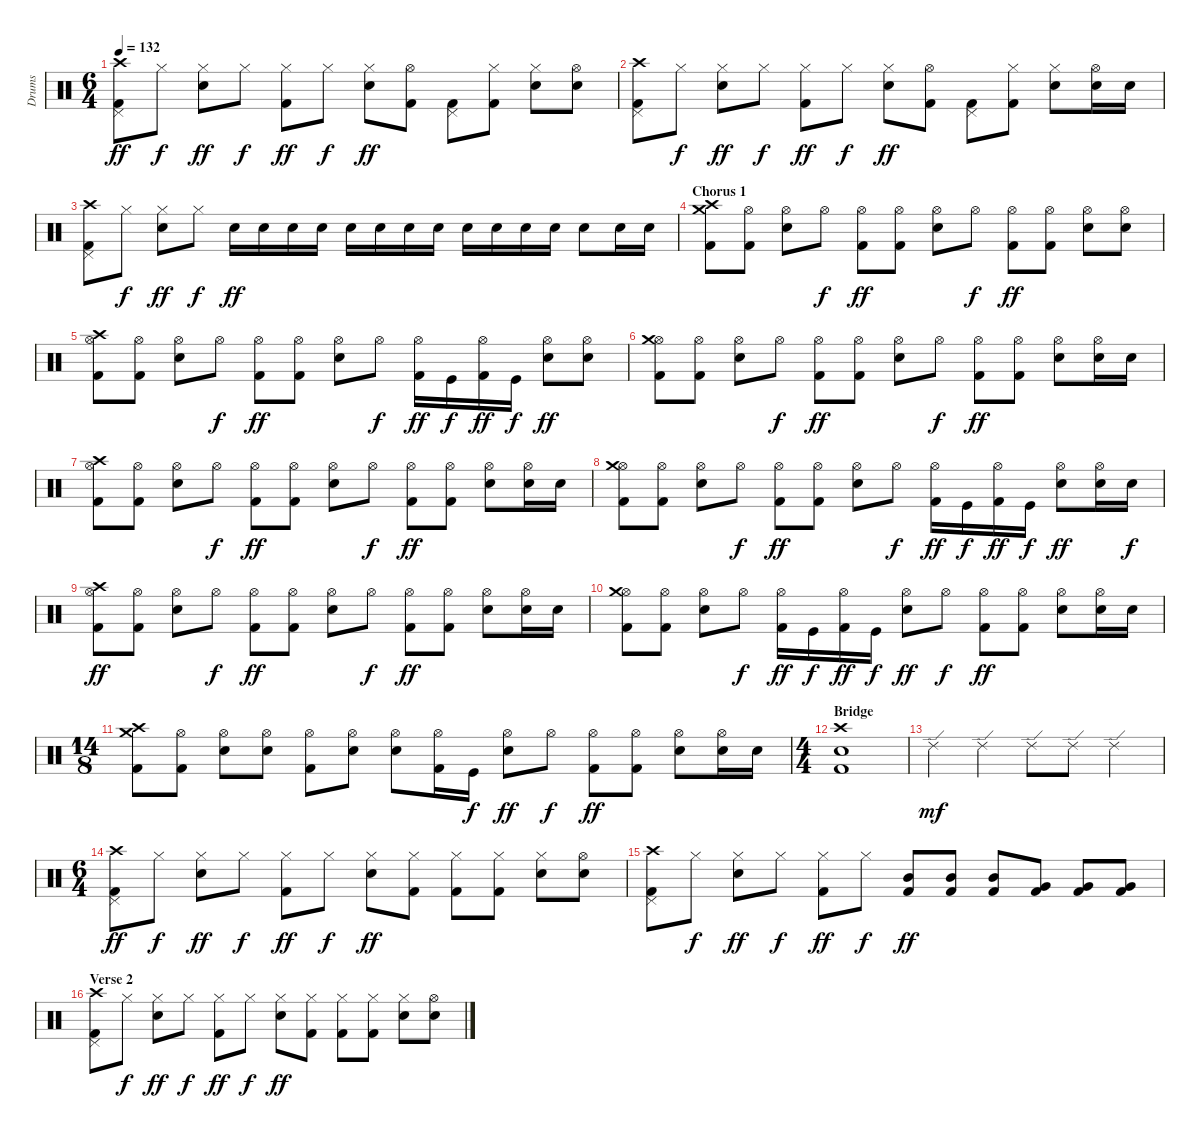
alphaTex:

\track ("Drums" "Drums") {instrument percussion}
\staff {score}
\articulation defaults
\ts (6 4)
\tempo 132
\clef neutral
\ks c
("Pedal Hi-Hat (hit)" "Crash high (hit)" "Kick (hit) 2").8{dy ff} "Hi-Hat (closed)".8{dy f} ("Hi-Hat (closed)" "Electric Snare (hit)").8{dy ff} "Hi-Hat (closed)".8{dy f} ("Hi-Hat (closed)" "Kick (hit) 2").8{dy ff} "Hi-Hat (closed)".8{dy f} ("Hi-Hat (closed)" "Electric Snare (hit)").8{dy ff} ("Hi-Hat (open)" "Kick (hit) 2").8 ("Pedal Hi-Hat (hit)" "Kick (hit) 2").8 ("Hi-Hat (closed)" "Kick (hit) 2").8 ("Hi-Hat (closed)" "Electric Snare (hit)").8 ("Hi-Hat (open)" "Electric Snare (hit)").8 |
("Pedal Hi-Hat (hit)" "Crash high (hit)" "Kick (hit) 2").8 "Hi-Hat (closed)".8{dy f} ("Hi-Hat (closed)" "Electric Snare (hit)").8{dy ff} "Hi-Hat (closed)".8{dy f} ("Hi-Hat (closed)" "Kick (hit) 2").8{dy ff} "Hi-Hat (closed)".8{dy f} ("Hi-Hat (closed)" "Electric Snare (hit)").8{dy ff} ("Hi-Hat (open)" "Kick (hit) 2").8 ("Pedal Hi-Hat (hit)" "Kick (hit) 2").8 ("Hi-Hat (closed)" "Kick (hit) 2").8 ("Hi-Hat (closed)" "Electric Snare (hit)").8 ("Hi-Hat (open)" "Electric Snare (hit)").16 "Electric Snare (hit)".16 |
("Pedal Hi-Hat (hit)" "Crash high (hit)" "Kick (hit) 2").8 "Hi-Hat (closed)".8{dy f} ("Hi-Hat (closed)" "Electric Snare (hit)").8{dy ff} "Hi-Hat (closed)".8{dy f} "Electric Snare (hit)".16{dy ff} "Electric Snare (hit)".16 "Electric Snare (hit)".16 "Electric Snare (hit)".16 "Electric Snare (hit)".16 "Electric Snare (hit)".16 "Electric Snare (hit)".16 "Electric Snare (hit)".16 "Electric Snare (hit)".16 "Electric Snare (hit)".16 "Electric Snare (hit)".16 "Electric Snare (hit)".16 "Electric Snare (hit)".8 "Electric Snare (hit)".16 "Electric Snare (hit)".16 |
\section ("" "Chorus 1")
("Crash high (hit)" "Crash medium (hit)" "Kick (hit) 2").8 ("Hi-Hat (open)" "Kick (hit) 2").8 ("Hi-Hat (open)" "Electric Snare (hit)").8 "Hi-Hat (open)".8{dy f} ("Hi-Hat (open)" "Kick (hit) 2").8{dy ff} ("Hi-Hat (open)" "Kick (hit) 2").8 ("Hi-Hat (open)" "Electric Snare (hit)").8 "Hi-Hat (open)".8{dy f} ("Hi-Hat (open)" "Kick (hit) 2").8{dy ff} ("Hi-Hat (open)" "Kick (hit) 2").8 ("Hi-Hat (open)" "Electric Snare (hit)").8 ("Hi-Hat (open)" "Electric Snare (hit)").8 |
("Hi-Hat (open)" "Crash high (hit)" "Kick (hit) 2").8 ("Hi-Hat (open)" "Kick (hit) 2").8 ("Hi-Hat (open)" "Electric Snare (hit)").8 "Hi-Hat (open)".8{dy f} ("Hi-Hat (open)" "Kick (hit) 2").8{dy ff} ("Hi-Hat (open)" "Kick (hit) 2").8 ("Hi-Hat (open)" "Electric Snare (hit)").8 "Hi-Hat (open)".8{dy f} ("Hi-Hat (open)" "Kick (hit) 2").16{dy ff} "Kick (hit)".16{dy f} ("Hi-Hat (open)" "Kick (hit) 2").16{dy ff} "Kick (hit)".16{dy f} ("Hi-Hat (open)" "Electric Snare (hit)").8{dy ff} ("Hi-Hat (open)" "Electric Snare (hit)").8 |
("Hi-Hat (open)" "Crash medium (hit)" "Kick (hit) 2").8 ("Hi-Hat (open)" "Kick (hit) 2").8 ("Hi-Hat (open)" "Electric Snare (hit)").8 "Hi-Hat (open)".8{dy f} ("Hi-Hat (open)" "Kick (hit) 2").8{dy ff} ("Hi-Hat (open)" "Kick (hit) 2").8 ("Hi-Hat (open)" "Electric Snare (hit)").8 "Hi-Hat (open)".8{dy f} ("Hi-Hat (open)" "Kick (hit) 2").8{dy ff} ("Hi-Hat (open)" "Kick (hit) 2").8 ("Hi-Hat (open)" "Electric Snare (hit)").8 ("Hi-Hat (open)" "Electric Snare (hit)").16 "Electric Snare (hit)".16 |
("Hi-Hat (open)" "Crash high (hit)" "Kick (hit) 2").8 ("Hi-Hat (open)" "Kick (hit) 2").8 ("Hi-Hat (open)" "Electric Snare (hit)").8 "Hi-Hat (open)".8{dy f} ("Hi-Hat (open)" "Kick (hit) 2").8{dy ff} ("Hi-Hat (open)" "Kick (hit) 2").8 ("Hi-Hat (open)" "Electric Snare (hit)").8 "Hi-Hat (open)".8{dy f} ("Hi-Hat (open)" "Kick (hit) 2").8{dy ff} ("Hi-Hat (open)" "Kick (hit) 2").8 ("Hi-Hat (open)" "Electric Snare (hit)").8 ("Hi-Hat (open)" "Electric Snare (hit)").16 "Electric Snare (hit)".16 |
("Hi-Hat (open)" "Crash medium (hit)" "Kick (hit) 2").8 ("Hi-Hat (open)" "Kick (hit) 2").8 ("Hi-Hat (open)" "Electric Snare (hit)").8 "Hi-Hat (open)".8{dy f} ("Hi-Hat (open)" "Kick (hit) 2").8{dy ff} ("Hi-Hat (open)" "Kick (hit) 2").8 ("Hi-Hat (open)" "Electric Snare (hit)").8 "Hi-Hat (open)".8{dy f} ("Hi-Hat (open)" "Kick (hit) 2").16{dy ff} "Kick (hit)".16{dy f} ("Hi-Hat (open)" "Kick (hit) 2").16{dy ff} "Kick (hit)".16{dy f} ("Hi-Hat (open)" "Electric Snare (hit)").8{dy ff} ("Hi-Hat (open)" "Electric Snare (hit)").16 "Electric Snare (hit)".16{dy f} |
("Hi-Hat (open)" "Crash high (hit)" "Kick (hit) 2").8{dy ff} ("Hi-Hat (open)" "Kick (hit) 2").8 ("Hi-Hat (open)" "Electric Snare (hit)").8 "Hi-Hat (open)".8{dy f} ("Hi-Hat (open)" "Kick (hit) 2").8{dy ff} ("Hi-Hat (open)" "Kick (hit) 2").8 ("Hi-Hat (open)" "Electric Snare (hit)").8 "Hi-Hat (open)".8{dy f} ("Hi-Hat (open)" "Kick (hit) 2").8{dy ff} ("Hi-Hat (open)" "Kick (hit) 2").8 ("Hi-Hat (open)" "Electric Snare (hit)").8 ("Hi-Hat (open)" "Electric Snare (hit)").16 "Electric Snare (hit)".16 |
("Hi-Hat (open)" "Crash medium (hit)" "Kick (hit) 2").8 ("Hi-Hat (open)" "Kick (hit) 2").8 ("Hi-Hat (open)" "Electric Snare (hit)").8 "Hi-Hat (open)".8{dy f} ("Hi-Hat (open)" "Kick (hit) 2").16{dy ff} "Kick (hit)".16{dy f} ("Hi-Hat (open)" "Kick (hit) 2").16{dy ff} "Kick (hit)".16{dy f} ("Hi-Hat (open)" "Electric Snare (hit)").8{dy ff} "Hi-Hat (open)".8{dy f} ("Hi-Hat (open)" "Kick (hit) 2").8{dy ff} ("Hi-Hat (open)" "Kick (hit) 2").8 ("Hi-Hat (open)" "Electric Snare (hit)").8 ("Hi-Hat (open)" "Electric Snare (hit)").16 "Electric Snare (hit)".16 |
\ts (14 8)
("Crash high (hit)" "Crash medium (hit)" "Kick (hit) 2").8 ("Hi-Hat (open)" "Kick (hit) 2").8 ("Hi-Hat (open)" "Electric Snare (hit)").8 ("Hi-Hat (open)" "Electric Snare (hit)").8 ("Hi-Hat (open)" "Kick (hit) 2").8 ("Hi-Hat (open)" "Electric Snare (hit)").8 ("Hi-Hat (open)" "Electric Snare (hit)").8 ("Hi-Hat (open)" "Kick (hit) 2").16 "Kick (hit)".16{dy f} ("Hi-Hat (open)" "Electric Snare (hit)").8{dy ff} "Hi-Hat (open)".8{dy f} ("Hi-Hat (open)" "Kick (hit) 2").8{dy ff} ("Hi-Hat (open)" "Kick (hit) 2").8 ("Hi-Hat (open)" "Electric Snare (hit)").8 ("Hi-Hat (open)" "Electric Snare (hit)").16 "Electric Snare (hit)".16 |
\ts (4 4)
\section ("" "Bridge")
("Crash high (hit)" "Electric Snare (hit)" "Kick (hit) 2").1 |
"Ride (edge) 2".4{dy mf} "Ride (edge) 2".4 "Ride (edge) 2".8 "Ride (edge) 2".8 "Ride (edge) 2".4 |
\ts (6 4)
("Pedal Hi-Hat (hit)" "Crash high (hit)" "Kick (hit) 2").8{dy ff} "Hi-Hat (closed)".8{dy f} ("Hi-Hat (closed)" "Electric Snare (hit)").8{dy ff} "Hi-Hat (closed)".8{dy f} ("Hi-Hat (closed)" "Kick (hit) 2").8{dy ff} "Hi-Hat (closed)".8{dy f} ("Hi-Hat (closed)" "Electric Snare (hit)").8{dy ff} ("Hi-Hat (closed)" "Kick (hit) 2").8 ("Hi-Hat (closed)" "Kick (hit) 2").8 ("Hi-Hat (closed)" "Kick (hit) 2").8 ("Hi-Hat (closed)" "Electric Snare (hit)").8 ("Hi-Hat (open)" "Electric Snare (hit)").8 |
("Pedal Hi-Hat (hit)" "Crash high (hit)" "Kick (hit) 2").8 "Hi-Hat (closed)".8{dy f} ("Hi-Hat (closed)" "Electric Snare (hit)").8{dy ff} "Hi-Hat (closed)".8{dy f} ("Hi-Hat (closed)" "Kick (hit) 2").8{dy ff} "Hi-Hat (closed)".8{dy f} ("Mid Tom (hit)" "Kick (hit) 2").8{dy ff} ("Mid Tom (hit)" "Kick (hit) 2").8 ("Mid Tom (hit)" "Kick (hit) 2").8 ("Very Low Tom (hit)" "Kick (hit) 2").8 ("Very Low Tom (hit)" "Kick (hit) 2").8 ("Very Low Tom (hit)" "Kick (hit) 2").8 |
\section ("" "Verse 2")
("Pedal Hi-Hat (hit)" "Crash high (hit)" "Kick (hit) 2").8 "Hi-Hat (closed)".8{dy f} ("Hi-Hat (closed)" "Electric Snare (hit)").8{dy ff} "Hi-Hat (closed)".8{dy f} ("Hi-Hat (closed)" "Kick (hit) 2").8{dy ff} "Hi-Hat (closed)".8{dy f} ("Hi-Hat (closed)" "Electric Snare (hit)").8{dy ff} ("Hi-Hat (closed)" "Kick (hit) 2").8 ("Hi-Hat (closed)" "Kick (hit) 2").8 ("Hi-Hat (closed)" "Kick (hit) 2").8 ("Hi-Hat (closed)" "Electric Snare (hit)").8 ("Hi-Hat (open)" "Electric Snare (hit)").8
